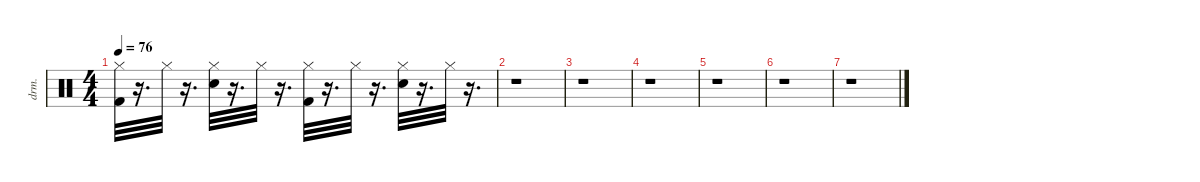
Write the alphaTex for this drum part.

\defaultSystemsLayout 4
\hideDynamics
\bracketExtendMode nobrackets
\otherSystemsTrackNameOrientation horizontal
\track ("Drums" "drm.") {instrument percussion}
\staff {score}
\articulation defaults
\ts (4 4)
\tempo 76
\clef neutral
\ks c
("Hi-Hat (closed)" "Kick (hit) 2").32{dy fff} r.16{d} "Hi-Hat (closed)".32 r.16{d} ("Hi-Hat (closed)" "Snare (hit) 2").32 r.16{d} "Hi-Hat (closed)".32 r.16{d} ("Kick (hit) 2" "Hi-Hat (closed)").32 r.16{d} "Hi-Hat (closed)".32 r.16{d} ("Hi-Hat (closed)" "Snare (hit) 2").32 r.16{d} "Hi-Hat (closed)".32 r.16{d} |
r.1 |
r.1 |
r.1 |
r.1 |
r.1 |
r.1
